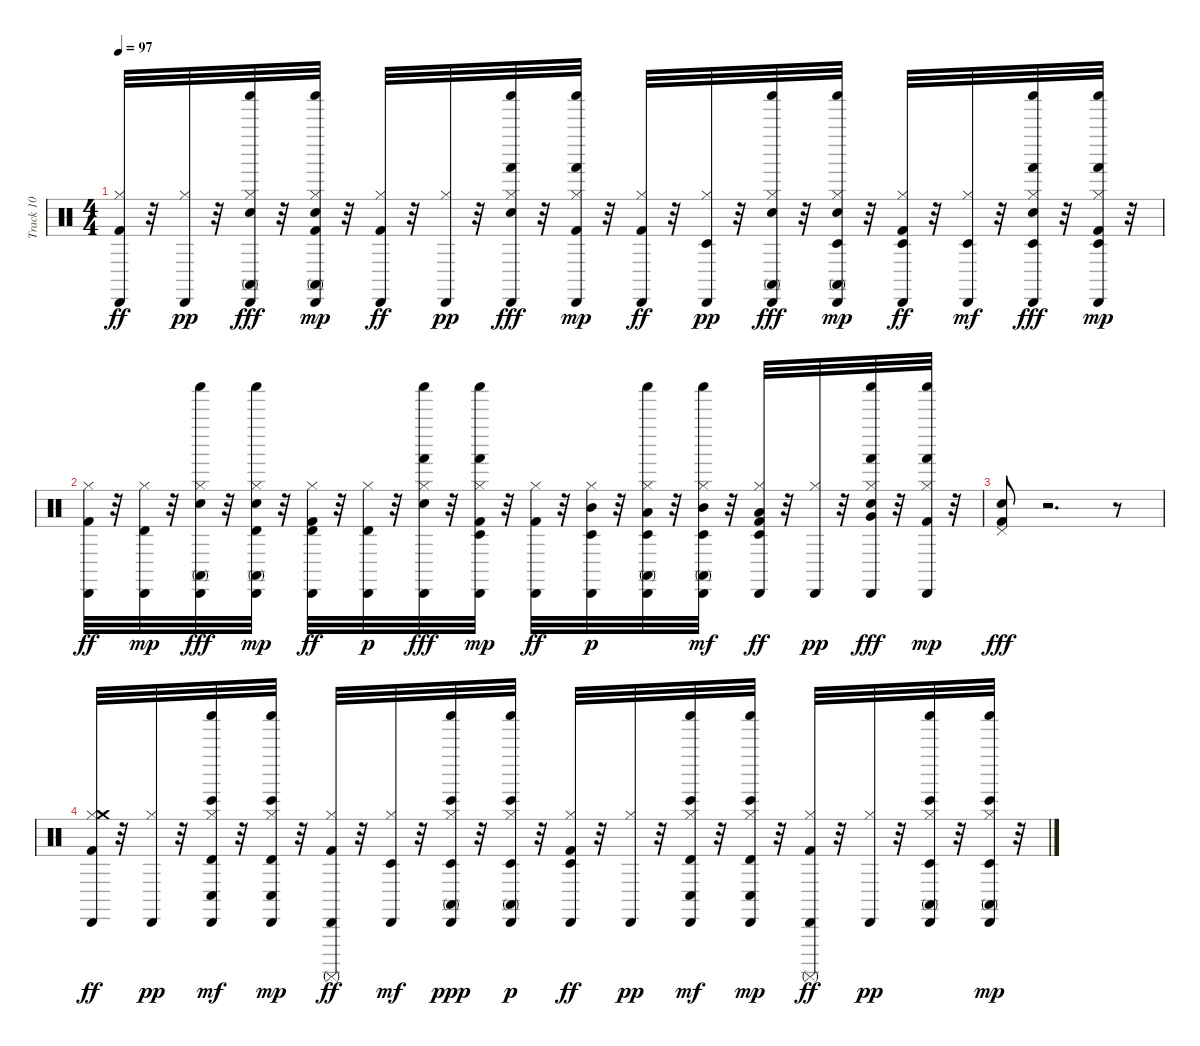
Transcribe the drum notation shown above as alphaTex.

\track ("Track 10" "Track 10") {instrument percussion}
\staff {score}
\articulation defaults
\ts (4 4)
\tempo 97
\clef neutral
\ks c
("Hi-Hat (closed)" "Cabasa (hit)" "Kick (hit) 2").32{dy ff} r.32 ("Hi-Hat (closed)" "Cabasa (hit)").32{dy pp} r.32 ("Hi-Hat (closed)" "Shaker (hit)" "Conga high (mute)" "Cabasa (hit)" "Snare (hit) 2").32{dy fff} r.32 ("Hi-Hat (closed)" "Shaker (hit)" "Conga high (mute)" "Cabasa (hit)" "Kick (hit) 2" "Snare (hit) 2").32{dy mp} r.32 ("Hi-Hat (closed)" "Cabasa (hit)" "Kick (hit) 2").32{dy ff} r.32 ("Hi-Hat (closed)" "Cabasa (hit)").32{dy pp} r.32 ("Hi-Hat (closed)" "Shaker (hit)" "Hand (hit)" "Cabasa (hit)" "Snare (hit) 2").32{dy fff} r.32 ("Hi-Hat (closed)" "Shaker (hit)" "Hand (hit)" "Cabasa (hit)" "Kick (hit) 2").32{dy mp} r.32 ("Hi-Hat (closed)" "Cabasa (hit)" "Kick (hit) 2").32{dy ff} r.32 ("Hi-Hat (closed)" "Cabasa (hit)" "Timbale low (hit)").32{dy pp} r.32 ("Hi-Hat (closed)" "Shaker (hit)" "Conga high (mute)" "Cabasa (hit)" "Snare (hit) 2").32{dy fff} r.32 ("Hi-Hat (closed)" "Shaker (hit)" "Conga high (mute)" "Cabasa (hit)" "Timbale low (hit)" "Snare (hit) 2").32{dy mp} r.32 ("Hi-Hat (closed)" "Cabasa (hit)" "Timbale low (hit)" "Kick (hit) 2").32{dy ff} r.32 ("Hi-Hat (closed)" "Cabasa (hit)" "Timbale low (hit)").32{dy mf} r.32 ("Hi-Hat (closed)" "Shaker (hit)" "Hand (hit)" "Cabasa (hit)" "Timbale low (hit)" "Snare (hit) 2").32{dy fff} r.32 ("Hi-Hat (closed)" "Shaker (hit)" "Hand (hit)" "Cabasa (hit)" "Timbale low (hit)" "Kick (hit) 2").32{dy mp} r.32 |
("Hi-Hat (closed)" "Cabasa (hit)" "Kick (hit) 2").32{dy ff} r.32 ("Hi-Hat (closed)" "Cabasa (hit)" "Timbale high (hit)").32{dy mp} r.32 ("Hi-Hat (closed)" "Shaker (hit)" "Conga high (mute)" "Cabasa (hit)" "Snare (hit) 2").32{dy fff} r.32 ("Hi-Hat (closed)" "Shaker (hit)" "Conga high (mute)" "Cabasa (hit)" "Timbale high (hit)" "Snare (hit) 2").32{dy mp} r.32 ("Hi-Hat (closed)" "Cabasa (hit)" "Timbale high (hit)" "Kick (hit) 2").32{dy ff} r.32 ("Hi-Hat (closed)" "Cabasa (hit)" "Timbale high (hit)").32{dy p} r.32 ("Hi-Hat (closed)" "Shaker (hit)" "Hand (hit)" "Cabasa (hit)" "Snare (hit) 2").32{dy fff} r.32 ("Hi-Hat (closed)" "Shaker (hit)" "Hand (hit)" "Cabasa (hit)" "Timbale low (hit)" "Kick (hit) 2").32{dy mp} r.32 ("Hi-Hat (closed)" "Cabasa (hit)" "Kick (hit) 2").32{dy ff} r.32 ("Hi-Hat (closed)" "Cabasa (hit)" "Mid Tom (hit)" "Timbale low (hit)").32{dy p} r.32 ("Hi-Hat (closed)" "Shaker (hit)" "Conga high (mute)" "Cabasa (hit)" "Low Tom (hit)" "Timbale low (hit)").32 r.32 ("Hi-Hat (closed)" "Shaker (hit)" "Conga high (mute)" "Cabasa (hit)" "Mid Tom (hit)" "Timbale low (hit)").32{dy mf} r.32 ("Hi-Hat (closed)" "Cabasa (hit)" "Low Tom (hit)" "Timbale low (hit)" "Kick (hit) 2").32{dy ff} r.32 ("Hi-Hat (closed)" "Cabasa (hit)").32{dy pp} r.32 ("Hi-Hat (closed)" "Shaker (hit)" "Hand (hit)" "Cabasa (hit)" "Very Low Tom (hit)" "Snare (hit) 2").32{dy fff} r.32 ("Hi-Hat (closed)" "Shaker (hit)" "Hand (hit)" "Cabasa (hit)" "Kick (hit) 2").32{dy mp} r.32 |
("Pedal Hi-Hat (hit)" "Kick (hit) 2" "Electric Snare (hit)").8{dy fff} r.2{d} r.8 |
("Hi-Hat (closed)" "Cabasa (hit)" "Crash medium (hit)" "Kick (hit) 2").32{dy ff} r.32 ("Hi-Hat (closed)" "Cabasa (hit)").32{dy pp} r.32 ("Hi-Hat (closed)" "Shaker (hit)" "Conga low (hit)" "Bongo High (hit)" "Cabasa (hit)" "Timbale high (hit)").32{dy mf} r.32 ("Hi-Hat (closed)" "Shaker (hit)" "Conga low (hit)" "Bongo High (hit)" "Cabasa (hit)" "Timbale high (hit)").32{dy mp} r.32 ("Hi-Hat (closed)" "Cabasa (hit)" "Surdo (mute)" "Kick (hit) 2").32{dy ff} r.32 ("Hi-Hat (closed)" "Cabasa (hit)" "Timbale low (hit)").32{dy mf} r.32 ("Hi-Hat (closed)" "Shaker (hit)" "Conga high (mute)" "Bongo High (hit)" "Cabasa (hit)" "Timbale low (hit)").32{dy ppp} r.32 ("Hi-Hat (closed)" "Shaker (hit)" "Conga high (mute)" "Bongo High (hit)" "Cabasa (hit)" "Timbale low (hit)").32{dy p} r.32 ("Hi-Hat (closed)" "Cabasa (hit)" "Timbale low (hit)" "Kick (hit) 2").32{dy ff} r.32 ("Hi-Hat (closed)" "Cabasa (hit)").32{dy pp} r.32 ("Hi-Hat (closed)" "Shaker (hit)" "Conga low (hit)" "Bongo High (hit)" "Cabasa (hit)" "Timbale high (hit)").32{dy mf} r.32 ("Hi-Hat (closed)" "Shaker (hit)" "Conga low (hit)" "Bongo High (hit)" "Cabasa (hit)" "Timbale high (hit)").32{dy mp} r.32 ("Hi-Hat (closed)" "Cabasa (hit)" "Surdo (mute)" "Kick (hit) 2").32{dy ff} r.32 ("Hi-Hat (closed)" "Cabasa (hit)").32{dy pp} r.32 ("Hi-Hat (closed)" "Shaker (hit)" "Conga high (mute)" "Bongo High (hit)" "Cabasa (hit)" "Timbale low (hit)").32 r.32 ("Hi-Hat (closed)" "Shaker (hit)" "Conga high (mute)" "Bongo High (hit)" "Cabasa (hit)" "Timbale low (hit)").32{dy mp} r.32
